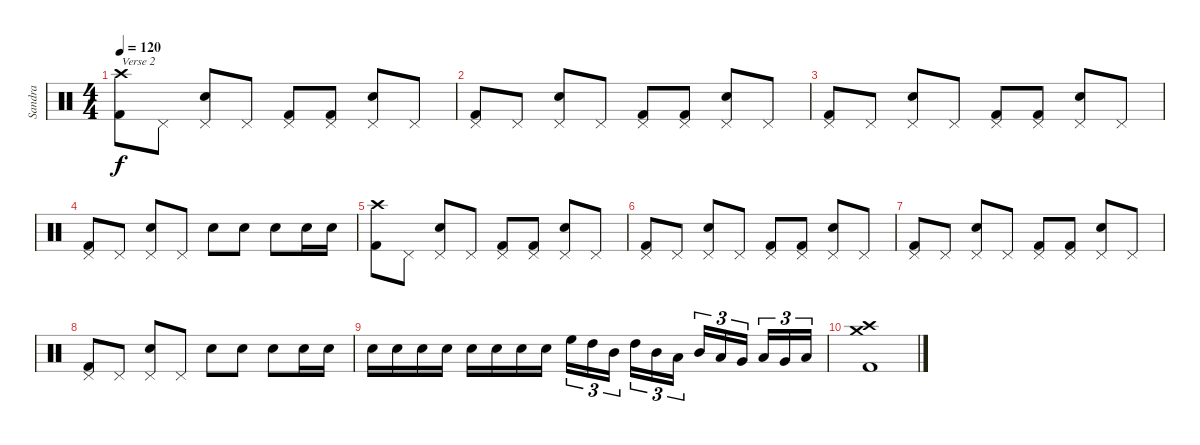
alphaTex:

\track ("Sandra" "Sandra") {instrument percussion}
\staff {score}
\articulation defaults
\ts (4 4)
\tempo 120
\clef neutral
\ks c
("Crash high (hit)" "Kick (hit) 2").8{txt "Verse 2" dy f} "Pedal Hi-Hat (hit)".8 ("Pedal Hi-Hat (hit)" "Snare (hit) 2").8 "Pedal Hi-Hat (hit)".8 ("Pedal Hi-Hat (hit)" "Kick (hit) 2").8 ("Pedal Hi-Hat (hit)" "Kick (hit) 2").8 ("Pedal Hi-Hat (hit)" "Snare (hit) 2").8 "Pedal Hi-Hat (hit)".8 |
("Pedal Hi-Hat (hit)" "Kick (hit) 2").8 "Pedal Hi-Hat (hit)".8 ("Pedal Hi-Hat (hit)" "Snare (hit) 2").8 "Pedal Hi-Hat (hit)".8 ("Pedal Hi-Hat (hit)" "Kick (hit) 2").8 ("Pedal Hi-Hat (hit)" "Kick (hit) 2").8 ("Pedal Hi-Hat (hit)" "Snare (hit) 2").8 "Pedal Hi-Hat (hit)".8 |
("Pedal Hi-Hat (hit)" "Kick (hit) 2").8 "Pedal Hi-Hat (hit)".8 ("Pedal Hi-Hat (hit)" "Snare (hit) 2").8 "Pedal Hi-Hat (hit)".8 ("Pedal Hi-Hat (hit)" "Kick (hit) 2").8 ("Pedal Hi-Hat (hit)" "Kick (hit) 2").8 ("Pedal Hi-Hat (hit)" "Snare (hit) 2").8 "Pedal Hi-Hat (hit)".8 |
("Pedal Hi-Hat (hit)" "Kick (hit) 2").8 "Pedal Hi-Hat (hit)".8 ("Pedal Hi-Hat (hit)" "Snare (hit) 2").8 "Pedal Hi-Hat (hit)".8 "Snare (hit) 2".8 "Snare (hit) 2".8 "Snare (hit) 2".8 "Snare (hit) 2".16 "Snare (hit) 2".16 |
("Crash high (hit)" "Kick (hit) 2").8 "Pedal Hi-Hat (hit)".8 ("Pedal Hi-Hat (hit)" "Snare (hit) 2").8 "Pedal Hi-Hat (hit)".8 ("Pedal Hi-Hat (hit)" "Kick (hit) 2").8 ("Pedal Hi-Hat (hit)" "Kick (hit) 2").8 ("Pedal Hi-Hat (hit)" "Snare (hit) 2").8 "Pedal Hi-Hat (hit)".8 |
("Pedal Hi-Hat (hit)" "Kick (hit) 2").8 "Pedal Hi-Hat (hit)".8 ("Pedal Hi-Hat (hit)" "Snare (hit) 2").8 "Pedal Hi-Hat (hit)".8 ("Pedal Hi-Hat (hit)" "Kick (hit) 2").8 ("Pedal Hi-Hat (hit)" "Kick (hit) 2").8 ("Pedal Hi-Hat (hit)" "Snare (hit) 2").8 "Pedal Hi-Hat (hit)".8 |
("Pedal Hi-Hat (hit)" "Kick (hit) 2").8 "Pedal Hi-Hat (hit)".8 ("Pedal Hi-Hat (hit)" "Snare (hit) 2").8 "Pedal Hi-Hat (hit)".8 ("Pedal Hi-Hat (hit)" "Kick (hit) 2").8 ("Pedal Hi-Hat (hit)" "Kick (hit) 2").8 ("Pedal Hi-Hat (hit)" "Snare (hit) 2").8 "Pedal Hi-Hat (hit)".8 |
("Pedal Hi-Hat (hit)" "Kick (hit) 2").8 "Pedal Hi-Hat (hit)".8 ("Pedal Hi-Hat (hit)" "Snare (hit) 2").8 "Pedal Hi-Hat (hit)".8 "Snare (hit) 2".8 "Snare (hit) 2".8 "Snare (hit) 2".8 "Snare (hit) 2".16 "Snare (hit) 2".16 |
"Snare (hit) 2".16 "Snare (hit) 2".16 "Snare (hit) 2".16 "Snare (hit) 2".16 "Snare (hit) 2".16 "Snare (hit) 2".16 "Snare (hit) 2".16 "Snare (hit) 2".16 "High Floor Tom (hit)".16{tu (3 2)} "High Tom (hit)".16{tu (3 2)} "Mid Tom (hit)".16{tu (3 2)} "High Tom (hit)".16{tu (3 2)} "Mid Tom (hit)".16{tu (3 2)} "Low Tom (hit)".16{tu (3 2)} "Mid Tom (hit)".16{tu (3 2)} "Low Tom (hit)".16{tu (3 2)} "Very Low Tom (hit)".16{tu (3 2)} "Low Tom (hit)".16{tu (3 2)} "Very Low Tom (hit)".16{tu (3 2)} "Low Floor Tom (hit)".16{tu (3 2)} |
("Crash high (hit)" "Crash medium (hit)" "Kick (hit) 2").1
